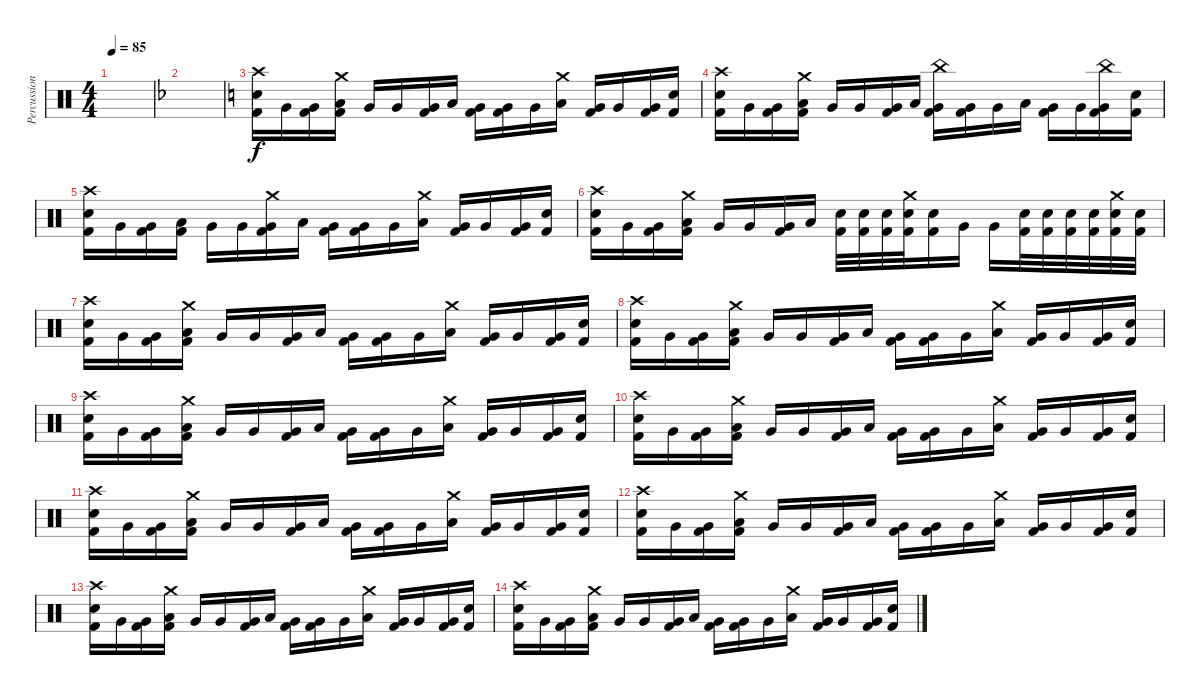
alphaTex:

\track ("Percussion" "Percussion") {instrument percussion}
\staff {score}
\articulation defaults
\ts (4 4)
\tempo 85
\clef neutral
\ks c
|
\ks dminor
|
\ks c
("Kick (hit) 2" "Electric Snare (hit)" "Crash high (hit)").16 "Very Low Tom (hit)".16 ("Kick (hit) 2" "Very Low Tom (hit)").16 ("Kick (hit) 2" "Low Floor Tom (hit)" "Crash medium (hit)").16 "Very Low Tom (hit)".16 "Very Low Tom (hit)".16 ("Kick (hit) 2" "Very Low Tom (hit)").16 "Low Floor Tom (hit)".16 ("Kick (hit) 2" "Very Low Tom (hit)").16 ("Kick (hit) 2" "Very Low Tom (hit)").16 "Very Low Tom (hit)".16 ("Low Floor Tom (hit)" "Crash medium (hit)").16 ("Kick (hit) 2" "Very Low Tom (hit)").16 "Very Low Tom (hit)".16 ("Kick (hit) 2" "Very Low Tom (hit)").16 ("Kick (hit) 2" "Electric Snare (hit)").16 |
("Kick (hit) 2" "Electric Snare (hit)" "Crash high (hit)").16 "Very Low Tom (hit)".16 ("Kick (hit) 2" "Very Low Tom (hit)").16 ("Kick (hit) 2" "Low Floor Tom (hit)" "Crash medium (hit)").16 "Very Low Tom (hit)".16 "Very Low Tom (hit)".16 ("Kick (hit) 2" "Very Low Tom (hit)").16 "Low Floor Tom (hit)".16 ("Kick (hit) 2" "Very Low Tom (hit)" "China (hit)").16 ("Kick (hit) 2" "Very Low Tom (hit)").16 "Very Low Tom (hit)".16 "Low Floor Tom (hit)".16 ("Kick (hit) 2" "Very Low Tom (hit)").16 "Very Low Tom (hit)".16 ("Kick (hit) 2" "Very Low Tom (hit)" "China (hit)").16 ("Kick (hit) 2" "Electric Snare (hit)").16 |
("Kick (hit) 2" "Electric Snare (hit)" "Crash high (hit)").16 "Very Low Tom (hit)".16 ("Kick (hit) 2" "Very Low Tom (hit)").16 ("Kick (hit) 2" "Low Floor Tom (hit)").16 "Very Low Tom (hit)".16 "Very Low Tom (hit)".16 ("Kick (hit) 2" "Very Low Tom (hit)" "Crash medium (hit)").16 "Low Floor Tom (hit)".16 ("Kick (hit) 2" "Very Low Tom (hit)").16 ("Kick (hit) 2" "Very Low Tom (hit)").16 "Very Low Tom (hit)".16 ("Low Floor Tom (hit)" "Crash medium (hit)").16 ("Kick (hit) 2" "Very Low Tom (hit)").16 "Very Low Tom (hit)".16 ("Kick (hit) 2" "Very Low Tom (hit)").16 ("Kick (hit) 2" "Electric Snare (hit)").16 |
("Kick (hit) 2" "Electric Snare (hit)" "Crash high (hit)").16 "Very Low Tom (hit)".16 ("Kick (hit) 2" "Very Low Tom (hit)").16 ("Kick (hit) 2" "Low Floor Tom (hit)" "Crash medium (hit)").16 "Very Low Tom (hit)".16 "Very Low Tom (hit)".16 ("Kick (hit) 2" "Very Low Tom (hit)").16 "Low Floor Tom (hit)".16 ("Kick (hit) 2" "Electric Snare (hit)").32 ("Kick (hit) 2" "Electric Snare (hit)").32 ("Kick (hit) 2" "Electric Snare (hit)").32 ("Kick (hit) 2" "Electric Snare (hit)" "Crash medium (hit)").32 ("Kick (hit) 2" "Electric Snare (hit)").16 "Very Low Tom (hit)".16 "Very Low Tom (hit)".16 ("Kick (hit) 2" "Electric Snare (hit)").32 ("Kick (hit) 2" "Electric Snare (hit)").32 ("Kick (hit) 2" "Electric Snare (hit)").32 ("Kick (hit) 2" "Electric Snare (hit)").32 ("Kick (hit) 2" "Electric Snare (hit)" "Crash medium (hit)").32 ("Kick (hit) 2" "Electric Snare (hit)").32 |
("Kick (hit) 2" "Electric Snare (hit)" "Crash high (hit)").16 "Very Low Tom (hit)".16 ("Kick (hit) 2" "Very Low Tom (hit)").16 ("Kick (hit) 2" "Low Floor Tom (hit)" "Crash medium (hit)").16 "Very Low Tom (hit)".16 "Very Low Tom (hit)".16 ("Kick (hit) 2" "Very Low Tom (hit)").16 "Low Floor Tom (hit)".16 ("Kick (hit) 2" "Very Low Tom (hit)").16 ("Kick (hit) 2" "Very Low Tom (hit)").16 "Very Low Tom (hit)".16 ("Low Floor Tom (hit)" "Crash medium (hit)").16 ("Kick (hit) 2" "Very Low Tom (hit)").16 "Very Low Tom (hit)".16 ("Kick (hit) 2" "Very Low Tom (hit)").16 ("Kick (hit) 2" "Electric Snare (hit)").16 |
("Kick (hit) 2" "Electric Snare (hit)" "Crash high (hit)").16 "Very Low Tom (hit)".16 ("Kick (hit) 2" "Very Low Tom (hit)").16 ("Kick (hit) 2" "Low Floor Tom (hit)" "Crash medium (hit)").16 "Very Low Tom (hit)".16 "Very Low Tom (hit)".16 ("Kick (hit) 2" "Very Low Tom (hit)").16 "Low Floor Tom (hit)".16 ("Kick (hit) 2" "Very Low Tom (hit)").16 ("Kick (hit) 2" "Very Low Tom (hit)").16 "Very Low Tom (hit)".16 ("Low Floor Tom (hit)" "Crash medium (hit)").16 ("Kick (hit) 2" "Very Low Tom (hit)").16 "Very Low Tom (hit)".16 ("Kick (hit) 2" "Very Low Tom (hit)").16 ("Kick (hit) 2" "Electric Snare (hit)").16 |
("Kick (hit) 2" "Electric Snare (hit)" "Crash high (hit)").16 "Very Low Tom (hit)".16 ("Kick (hit) 2" "Very Low Tom (hit)").16 ("Kick (hit) 2" "Low Floor Tom (hit)" "Crash medium (hit)").16 "Very Low Tom (hit)".16 "Very Low Tom (hit)".16 ("Kick (hit) 2" "Very Low Tom (hit)").16 "Low Floor Tom (hit)".16 ("Kick (hit) 2" "Very Low Tom (hit)").16 ("Kick (hit) 2" "Very Low Tom (hit)").16 "Very Low Tom (hit)".16 ("Low Floor Tom (hit)" "Crash medium (hit)").16 ("Kick (hit) 2" "Very Low Tom (hit)").16 "Very Low Tom (hit)".16 ("Kick (hit) 2" "Very Low Tom (hit)").16 ("Kick (hit) 2" "Electric Snare (hit)").16 |
("Kick (hit) 2" "Electric Snare (hit)" "Crash high (hit)").16 "Very Low Tom (hit)".16 ("Kick (hit) 2" "Very Low Tom (hit)").16 ("Kick (hit) 2" "Low Floor Tom (hit)" "Crash medium (hit)").16 "Very Low Tom (hit)".16 "Very Low Tom (hit)".16 ("Kick (hit) 2" "Very Low Tom (hit)").16 "Low Floor Tom (hit)".16 ("Kick (hit) 2" "Very Low Tom (hit)").16 ("Kick (hit) 2" "Very Low Tom (hit)").16 "Very Low Tom (hit)".16 ("Low Floor Tom (hit)" "Crash medium (hit)").16 ("Kick (hit) 2" "Very Low Tom (hit)").16 "Very Low Tom (hit)".16 ("Kick (hit) 2" "Very Low Tom (hit)").16 ("Kick (hit) 2" "Electric Snare (hit)").16 |
("Kick (hit) 2" "Electric Snare (hit)" "Crash high (hit)").16 "Very Low Tom (hit)".16 ("Kick (hit) 2" "Very Low Tom (hit)").16 ("Kick (hit) 2" "Low Floor Tom (hit)" "Crash medium (hit)").16 "Very Low Tom (hit)".16 "Very Low Tom (hit)".16 ("Kick (hit) 2" "Very Low Tom (hit)").16 "Low Floor Tom (hit)".16 ("Kick (hit) 2" "Very Low Tom (hit)").16 ("Kick (hit) 2" "Very Low Tom (hit)").16 "Very Low Tom (hit)".16 ("Low Floor Tom (hit)" "Crash medium (hit)").16 ("Kick (hit) 2" "Very Low Tom (hit)").16 "Very Low Tom (hit)".16 ("Kick (hit) 2" "Very Low Tom (hit)").16 ("Kick (hit) 2" "Electric Snare (hit)").16 |
("Kick (hit) 2" "Electric Snare (hit)" "Crash high (hit)").16 "Very Low Tom (hit)".16 ("Kick (hit) 2" "Very Low Tom (hit)").16 ("Kick (hit) 2" "Low Floor Tom (hit)" "Crash medium (hit)").16 "Very Low Tom (hit)".16 "Very Low Tom (hit)".16 ("Kick (hit) 2" "Very Low Tom (hit)").16 "Low Floor Tom (hit)".16 ("Kick (hit) 2" "Very Low Tom (hit)").16 ("Kick (hit) 2" "Very Low Tom (hit)").16 "Very Low Tom (hit)".16 ("Low Floor Tom (hit)" "Crash medium (hit)").16 ("Kick (hit) 2" "Very Low Tom (hit)").16 "Very Low Tom (hit)".16 ("Kick (hit) 2" "Very Low Tom (hit)").16 ("Kick (hit) 2" "Electric Snare (hit)").16 |
("Kick (hit) 2" "Electric Snare (hit)" "Crash high (hit)").16 "Very Low Tom (hit)".16 ("Kick (hit) 2" "Very Low Tom (hit)").16 ("Kick (hit) 2" "Low Floor Tom (hit)" "Crash medium (hit)").16 "Very Low Tom (hit)".16 "Very Low Tom (hit)".16 ("Kick (hit) 2" "Very Low Tom (hit)").16 "Low Floor Tom (hit)".16 ("Kick (hit) 2" "Very Low Tom (hit)").16 ("Kick (hit) 2" "Very Low Tom (hit)").16 "Very Low Tom (hit)".16 ("Low Floor Tom (hit)" "Crash medium (hit)").16 ("Kick (hit) 2" "Very Low Tom (hit)").16 "Very Low Tom (hit)".16 ("Kick (hit) 2" "Very Low Tom (hit)").16 ("Kick (hit) 2" "Electric Snare (hit)").16 |
("Kick (hit) 2" "Electric Snare (hit)" "Crash high (hit)").16 "Very Low Tom (hit)".16 ("Kick (hit) 2" "Very Low Tom (hit)").16 ("Kick (hit) 2" "Low Floor Tom (hit)" "Crash medium (hit)").16 "Very Low Tom (hit)".16 "Very Low Tom (hit)".16 ("Kick (hit) 2" "Very Low Tom (hit)").16 "Low Floor Tom (hit)".16 ("Kick (hit) 2" "Very Low Tom (hit)").16 ("Kick (hit) 2" "Very Low Tom (hit)").16 "Very Low Tom (hit)".16 ("Low Floor Tom (hit)" "Crash medium (hit)").16 ("Kick (hit) 2" "Very Low Tom (hit)").16 "Very Low Tom (hit)".16 ("Kick (hit) 2" "Very Low Tom (hit)").16 ("Kick (hit) 2" "Electric Snare (hit)").16
